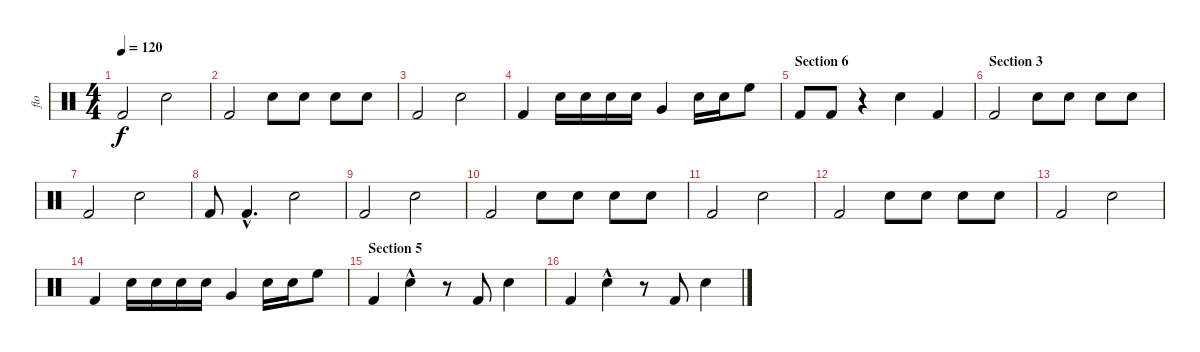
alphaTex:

\track ("flo" "flo") {instrument percussion}
\staff {score}
\articulation defaults
\ts (4 4)
\tempo 120
\clef neutral
\ks c "Kick (hit) 2".2{dy f} "Electric Snare (hit)".2
|
"Kick (hit) 2".2 "Electric Snare (hit)".8 "Electric Snare (hit)".8 "Electric Snare (hit)".8 "Electric Snare (hit)".8 |
"Kick (hit) 2".2 "Electric Snare (hit)".2 |
"Kick (hit) 2".4 "Electric Snare (hit)".16 "Electric Snare (hit)".16 "Electric Snare (hit)".16 "Electric Snare (hit)".16 "Very Low Tom (hit)".4 "Electric Snare (hit)".16 "Electric Snare (hit)".16 "High Floor Tom (hit)".8 |
\section ("" "Section 6")
"Kick (hit) 2".8 "Kick (hit) 2".8 r.4 "Electric Snare (hit)".4 "Kick (hit) 2".4 |
\section ("" "Section 3")
"Kick (hit) 2".2 "Electric Snare (hit)".8 "Electric Snare (hit)".8 "Electric Snare (hit)".8 "Electric Snare (hit)".8 |
"Kick (hit) 2".2 "Electric Snare (hit)".2 |
"Kick (hit) 2".8 "Kick (hit) 2"{hac}.4{d} "Electric Snare (hit)".2 |
"Kick (hit) 2".2 "Electric Snare (hit)".2 |
"Kick (hit) 2".2 "Electric Snare (hit)".8 "Electric Snare (hit)".8 "Electric Snare (hit)".8 "Electric Snare (hit)".8 |
"Kick (hit) 2".2 "Electric Snare (hit)".2 |
"Kick (hit) 2".2 "Electric Snare (hit)".8 "Electric Snare (hit)".8 "Electric Snare (hit)".8 "Electric Snare (hit)".8 |
"Kick (hit) 2".2 "Electric Snare (hit)".2 |
"Kick (hit) 2".4 "Electric Snare (hit)".16 "Electric Snare (hit)".16 "Electric Snare (hit)".16 "Electric Snare (hit)".16 "Very Low Tom (hit)".4 "Electric Snare (hit)".16 "Electric Snare (hit)".16 "High Floor Tom (hit)".8 |
\section ("" "Section 5")
"Kick (hit) 2".4 "Electric Snare (hit)"{hac}.4 r.8 "Kick (hit) 2".8 "Electric Snare (hit)".4 |
"Kick (hit) 2".4 "Electric Snare (hit)"{hac}.4 r.8 "Kick (hit) 2".8 "Electric Snare (hit)".4
